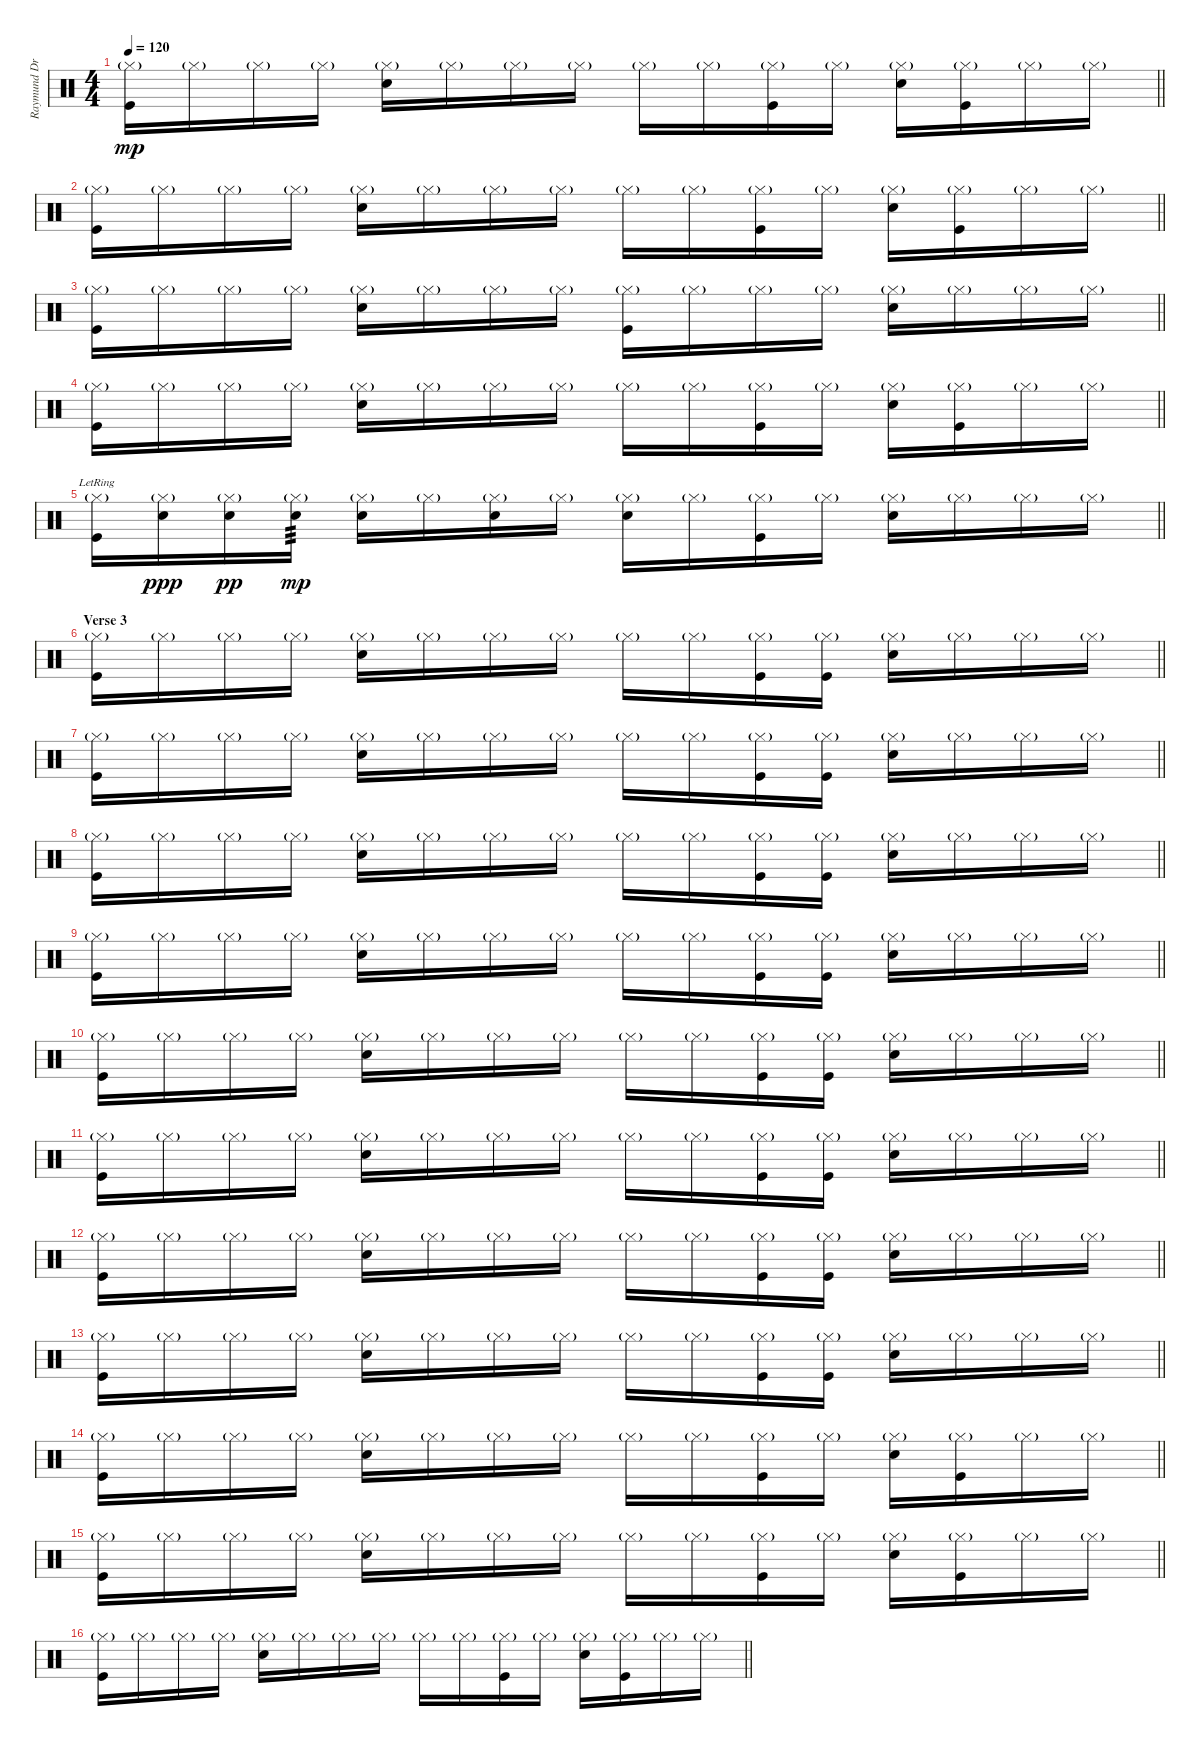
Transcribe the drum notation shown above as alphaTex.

\track ("Raymund Drums" "Raymund Dr") {instrument percussion}
\staff {score}
\articulation defaults
\ts (4 4)
\tempo 120
\clef neutral
\barLineRight lightlight
\ks c
("Hi-Hat (closed)"{g} "Kick (hit)").16{dy mp} "Hi-Hat (closed)"{g}.16 "Hi-Hat (closed)"{g}.16 "Hi-Hat (closed)"{g}.16 ("Hi-Hat (closed)"{g} "Snare (hit) 2").16 "Hi-Hat (closed)"{g}.16 "Hi-Hat (closed)"{g}.16 "Hi-Hat (closed)"{g}.16 "Hi-Hat (closed)"{g}.16 "Hi-Hat (closed)"{g}.16 ("Hi-Hat (closed)"{g} "Kick (hit)").16 "Hi-Hat (closed)"{g}.16 ("Hi-Hat (closed)"{g} "Snare (hit) 2").16 ("Hi-Hat (closed)"{g} "Kick (hit)").16 "Hi-Hat (closed)"{g}.16 "Hi-Hat (closed)"{g}.16 |
\barLineRight lightlight
("Hi-Hat (closed)"{g} "Kick (hit)").16 "Hi-Hat (closed)"{g}.16 "Hi-Hat (closed)"{g}.16 "Hi-Hat (closed)"{g}.16 ("Hi-Hat (closed)"{g} "Snare (hit) 2").16 "Hi-Hat (closed)"{g}.16 "Hi-Hat (closed)"{g}.16 "Hi-Hat (closed)"{g}.16 "Hi-Hat (closed)"{g}.16 "Hi-Hat (closed)"{g}.16 ("Hi-Hat (closed)"{g} "Kick (hit)").16 "Hi-Hat (closed)"{g}.16 ("Hi-Hat (closed)"{g} "Snare (hit) 2").16 ("Hi-Hat (closed)"{g} "Kick (hit)").16 "Hi-Hat (closed)"{g}.16 "Hi-Hat (closed)"{g}.16 |
\barLineRight lightlight
("Hi-Hat (closed)"{g} "Kick (hit)").16 "Hi-Hat (closed)"{g}.16 "Hi-Hat (closed)"{g}.16 "Hi-Hat (closed)"{g}.16 ("Hi-Hat (closed)"{g} "Snare (hit) 2").16 "Hi-Hat (closed)"{g}.16 "Hi-Hat (closed)"{g}.16 "Hi-Hat (closed)"{g}.16 ("Hi-Hat (closed)"{g} "Kick (hit)").16 "Hi-Hat (closed)"{g}.16 "Hi-Hat (closed)"{g}.16 "Hi-Hat (closed)"{g}.16 ("Hi-Hat (closed)"{g} "Snare (hit) 2").16 "Hi-Hat (closed)"{g}.16 "Hi-Hat (closed)"{g}.16 "Hi-Hat (closed)"{g}.16 |
\barLineRight lightlight
("Hi-Hat (closed)"{g} "Kick (hit)").16 "Hi-Hat (closed)"{g}.16 "Hi-Hat (closed)"{g}.16 "Hi-Hat (closed)"{g}.16 ("Hi-Hat (closed)"{g} "Snare (hit) 2").16 "Hi-Hat (closed)"{g}.16 "Hi-Hat (closed)"{g}.16 "Hi-Hat (closed)"{g}.16 "Hi-Hat (closed)"{g}.16 "Hi-Hat (closed)"{g}.16 ("Hi-Hat (closed)"{g} "Kick (hit)").16 "Hi-Hat (closed)"{g}.16 ("Hi-Hat (closed)"{g} "Snare (hit) 2").16 ("Hi-Hat (closed)"{g} "Kick (hit)").16 "Hi-Hat (closed)"{g}.16 "Hi-Hat (closed)"{g}.16 |
\barLineRight lightlight
("Hi-Hat (closed)"{g} "Kick (hit)"{lr}).16 ("Hi-Hat (closed)"{g} "Snare (hit) 2").16{dy ppp} ("Hi-Hat (closed)"{g} "Snare (hit) 2").16{dy pp} ("Hi-Hat (closed)"{g} "Snare (hit) 2").16{tp 3 dy mp} ("Hi-Hat (closed)"{g} "Snare (hit) 2").16 "Hi-Hat (closed)"{g}.16 ("Hi-Hat (closed)"{g} "Snare (hit) 2").16 "Hi-Hat (closed)"{g}.16 ("Hi-Hat (closed)"{g} "Snare (hit) 2").16 "Hi-Hat (closed)"{g}.16 ("Hi-Hat (closed)"{g} "Kick (hit)").16 "Hi-Hat (closed)"{g}.16 ("Hi-Hat (closed)"{g} "Snare (hit) 2").16 "Hi-Hat (closed)"{g}.16 "Hi-Hat (closed)"{g}.16 "Hi-Hat (closed)"{g}.16 |
\section ("" "Verse 3")
\barLineRight lightlight
("Hi-Hat (closed)"{g} "Kick (hit)").16 "Hi-Hat (closed)"{g}.16 "Hi-Hat (closed)"{g}.16 "Hi-Hat (closed)"{g}.16 ("Hi-Hat (closed)"{g} "Snare (hit) 2").16 "Hi-Hat (closed)"{g}.16 "Hi-Hat (closed)"{g}.16 "Hi-Hat (closed)"{g}.16 "Hi-Hat (closed)"{g}.16 "Hi-Hat (closed)"{g}.16 ("Hi-Hat (closed)"{g} "Kick (hit)").16 ("Hi-Hat (closed)"{g} "Kick (hit)").16 ("Hi-Hat (closed)"{g} "Snare (hit) 2").16 "Hi-Hat (closed)"{g}.16 "Hi-Hat (closed)"{g}.16 "Hi-Hat (closed)"{g}.16 |
\barLineRight lightlight
("Hi-Hat (closed)"{g} "Kick (hit)").16 "Hi-Hat (closed)"{g}.16 "Hi-Hat (closed)"{g}.16 "Hi-Hat (closed)"{g}.16 ("Hi-Hat (closed)"{g} "Snare (hit) 2").16 "Hi-Hat (closed)"{g}.16 "Hi-Hat (closed)"{g}.16 "Hi-Hat (closed)"{g}.16 "Hi-Hat (closed)"{g}.16 "Hi-Hat (closed)"{g}.16 ("Hi-Hat (closed)"{g} "Kick (hit)").16 ("Hi-Hat (closed)"{g} "Kick (hit)").16 ("Hi-Hat (closed)"{g} "Snare (hit) 2").16 "Hi-Hat (closed)"{g}.16 "Hi-Hat (closed)"{g}.16 "Hi-Hat (closed)"{g}.16 |
\barLineRight lightlight
("Hi-Hat (closed)"{g} "Kick (hit)").16 "Hi-Hat (closed)"{g}.16 "Hi-Hat (closed)"{g}.16 "Hi-Hat (closed)"{g}.16 ("Hi-Hat (closed)"{g} "Snare (hit) 2").16 "Hi-Hat (closed)"{g}.16 "Hi-Hat (closed)"{g}.16 "Hi-Hat (closed)"{g}.16 "Hi-Hat (closed)"{g}.16 "Hi-Hat (closed)"{g}.16 ("Hi-Hat (closed)"{g} "Kick (hit)").16 ("Hi-Hat (closed)"{g} "Kick (hit)").16 ("Hi-Hat (closed)"{g} "Snare (hit) 2").16 "Hi-Hat (closed)"{g}.16 "Hi-Hat (closed)"{g}.16 "Hi-Hat (closed)"{g}.16 |
\barLineRight lightlight
("Hi-Hat (closed)"{g} "Kick (hit)").16 "Hi-Hat (closed)"{g}.16 "Hi-Hat (closed)"{g}.16 "Hi-Hat (closed)"{g}.16 ("Hi-Hat (closed)"{g} "Snare (hit) 2").16 "Hi-Hat (closed)"{g}.16 "Hi-Hat (closed)"{g}.16 "Hi-Hat (closed)"{g}.16 "Hi-Hat (closed)"{g}.16 "Hi-Hat (closed)"{g}.16 ("Hi-Hat (closed)"{g} "Kick (hit)").16 ("Hi-Hat (closed)"{g} "Kick (hit)").16 ("Hi-Hat (closed)"{g} "Snare (hit) 2").16 "Hi-Hat (closed)"{g}.16 "Hi-Hat (closed)"{g}.16 "Hi-Hat (closed)"{g}.16 |
\barLineRight lightlight
("Hi-Hat (closed)"{g} "Kick (hit)").16 "Hi-Hat (closed)"{g}.16 "Hi-Hat (closed)"{g}.16 "Hi-Hat (closed)"{g}.16 ("Hi-Hat (closed)"{g} "Snare (hit) 2").16 "Hi-Hat (closed)"{g}.16 "Hi-Hat (closed)"{g}.16 "Hi-Hat (closed)"{g}.16 "Hi-Hat (closed)"{g}.16 "Hi-Hat (closed)"{g}.16 ("Hi-Hat (closed)"{g} "Kick (hit)").16 ("Hi-Hat (closed)"{g} "Kick (hit)").16 ("Hi-Hat (closed)"{g} "Snare (hit) 2").16 "Hi-Hat (closed)"{g}.16 "Hi-Hat (closed)"{g}.16 "Hi-Hat (closed)"{g}.16 |
\barLineRight lightlight
("Hi-Hat (closed)"{g} "Kick (hit)").16 "Hi-Hat (closed)"{g}.16 "Hi-Hat (closed)"{g}.16 "Hi-Hat (closed)"{g}.16 ("Hi-Hat (closed)"{g} "Snare (hit) 2").16 "Hi-Hat (closed)"{g}.16 "Hi-Hat (closed)"{g}.16 "Hi-Hat (closed)"{g}.16 "Hi-Hat (closed)"{g}.16 "Hi-Hat (closed)"{g}.16 ("Hi-Hat (closed)"{g} "Kick (hit)").16 ("Hi-Hat (closed)"{g} "Kick (hit)").16 ("Hi-Hat (closed)"{g} "Snare (hit) 2").16 "Hi-Hat (closed)"{g}.16 "Hi-Hat (closed)"{g}.16 "Hi-Hat (closed)"{g}.16 |
\barLineRight lightlight
("Hi-Hat (closed)"{g} "Kick (hit)").16 "Hi-Hat (closed)"{g}.16 "Hi-Hat (closed)"{g}.16 "Hi-Hat (closed)"{g}.16 ("Hi-Hat (closed)"{g} "Snare (hit) 2").16 "Hi-Hat (closed)"{g}.16 "Hi-Hat (closed)"{g}.16 "Hi-Hat (closed)"{g}.16 "Hi-Hat (closed)"{g}.16 "Hi-Hat (closed)"{g}.16 ("Hi-Hat (closed)"{g} "Kick (hit)").16 ("Hi-Hat (closed)"{g} "Kick (hit)").16 ("Hi-Hat (closed)"{g} "Snare (hit) 2").16 "Hi-Hat (closed)"{g}.16 "Hi-Hat (closed)"{g}.16 "Hi-Hat (closed)"{g}.16 |
\barLineRight lightlight
("Hi-Hat (closed)"{g} "Kick (hit)").16 "Hi-Hat (closed)"{g}.16 "Hi-Hat (closed)"{g}.16 "Hi-Hat (closed)"{g}.16 ("Hi-Hat (closed)"{g} "Snare (hit) 2").16 "Hi-Hat (closed)"{g}.16 "Hi-Hat (closed)"{g}.16 "Hi-Hat (closed)"{g}.16 "Hi-Hat (closed)"{g}.16 "Hi-Hat (closed)"{g}.16 ("Hi-Hat (closed)"{g} "Kick (hit)").16 ("Hi-Hat (closed)"{g} "Kick (hit)").16 ("Hi-Hat (closed)"{g} "Snare (hit) 2").16 "Hi-Hat (closed)"{g}.16 "Hi-Hat (closed)"{g}.16 "Hi-Hat (closed)"{g}.16 |
\barLineRight lightlight
("Hi-Hat (closed)"{g} "Kick (hit)").16 "Hi-Hat (closed)"{g}.16 "Hi-Hat (closed)"{g}.16 "Hi-Hat (closed)"{g}.16 ("Hi-Hat (closed)"{g} "Snare (hit) 2").16 "Hi-Hat (closed)"{g}.16 "Hi-Hat (closed)"{g}.16 "Hi-Hat (closed)"{g}.16 "Hi-Hat (closed)"{g}.16 "Hi-Hat (closed)"{g}.16 ("Hi-Hat (closed)"{g} "Kick (hit)").16 "Hi-Hat (closed)"{g}.16 ("Hi-Hat (closed)"{g} "Snare (hit) 2").16 ("Hi-Hat (closed)"{g} "Kick (hit)").16 "Hi-Hat (closed)"{g}.16 "Hi-Hat (closed)"{g}.16 |
\barLineRight lightlight
("Hi-Hat (closed)"{g} "Kick (hit)").16 "Hi-Hat (closed)"{g}.16 "Hi-Hat (closed)"{g}.16 "Hi-Hat (closed)"{g}.16 ("Hi-Hat (closed)"{g} "Snare (hit) 2").16 "Hi-Hat (closed)"{g}.16 "Hi-Hat (closed)"{g}.16 "Hi-Hat (closed)"{g}.16 "Hi-Hat (closed)"{g}.16 "Hi-Hat (closed)"{g}.16 ("Hi-Hat (closed)"{g} "Kick (hit)").16 "Hi-Hat (closed)"{g}.16 ("Hi-Hat (closed)"{g} "Snare (hit) 2").16 ("Hi-Hat (closed)"{g} "Kick (hit)").16 "Hi-Hat (closed)"{g}.16 "Hi-Hat (closed)"{g}.16 |
\barLineRight lightlight
("Hi-Hat (closed)"{g} "Kick (hit)").16 "Hi-Hat (closed)"{g}.16 "Hi-Hat (closed)"{g}.16 "Hi-Hat (closed)"{g}.16 ("Hi-Hat (closed)"{g} "Snare (hit) 2").16 "Hi-Hat (closed)"{g}.16 "Hi-Hat (closed)"{g}.16 "Hi-Hat (closed)"{g}.16 "Hi-Hat (closed)"{g}.16 "Hi-Hat (closed)"{g}.16 ("Hi-Hat (closed)"{g} "Kick (hit)").16 "Hi-Hat (closed)"{g}.16 ("Hi-Hat (closed)"{g} "Snare (hit) 2").16 ("Hi-Hat (closed)"{g} "Kick (hit)").16 "Hi-Hat (closed)"{g}.16 "Hi-Hat (closed)"{g}.16
